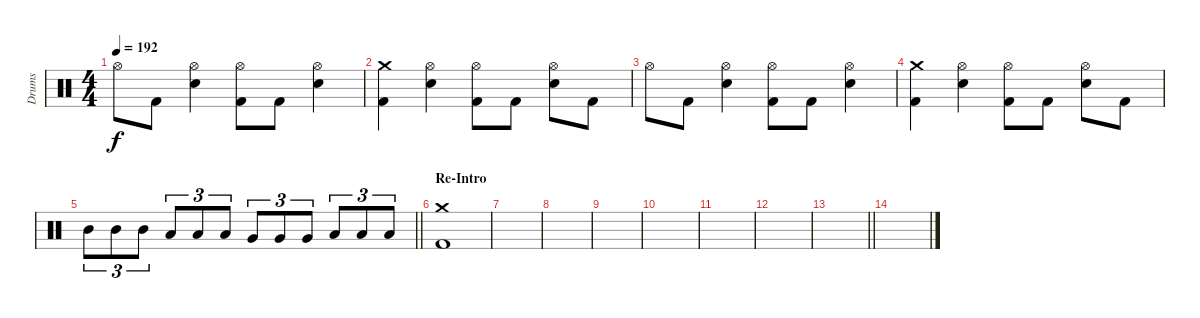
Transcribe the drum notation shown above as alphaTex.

\track ("Drums" "Drums") {instrument percussion}
\staff {score}
\articulation defaults
\ts (4 4)
\tempo 192
\clef neutral
\ks c "Hi-Hat (open)".8{dy f} "Kick (hit) 2".8
("Snare (hit) 2" "Hi-Hat (open)").4 ("Kick (hit) 2" "Hi-Hat (open)").8 "Kick (hit) 2".8 ("Snare (hit) 2" "Hi-Hat (open)").4 |
("Kick (hit) 2" "Crash medium (hit)").4 ("Snare (hit) 2" "Hi-Hat (open)").4 ("Kick (hit) 2" "Hi-Hat (open)").8 "Kick (hit) 2".8 ("Snare (hit) 2" "Hi-Hat (open)").8 "Kick (hit) 2".8 |
"Hi-Hat (open)".8 "Kick (hit) 2".8 ("Snare (hit) 2" "Hi-Hat (open)").4 ("Kick (hit) 2" "Hi-Hat (open)").8 "Kick (hit) 2".8 ("Snare (hit) 2" "Hi-Hat (open)").4 |
("Kick (hit) 2" "Crash medium (hit)").4 ("Snare (hit) 2" "Hi-Hat (open)").4 ("Kick (hit) 2" "Hi-Hat (open)").8 "Kick (hit) 2".8 ("Snare (hit) 2" "Hi-Hat (open)").8 "Kick (hit) 2".8 |
\barLineRight lightlight "Mid Tom (hit)".8{tu (3 2)} "Mid Tom (hit)".8{tu (3 2)} "Mid Tom (hit)".8{tu (3 2)} "Low Tom (hit)".8{tu (3 2)} "Low Tom (hit)".8{tu (3 2)} "Low Tom (hit)".8{tu (3 2)} "Very Low Tom (hit)".8{tu (3 2)} "Very Low Tom (hit)".8{tu (3 2)} "Very Low Tom (hit)".8{tu (3 2)} "Low Floor Tom (hit)".8{tu (3 2)} "Low Floor Tom (hit)".8{tu (3 2)} "Low Floor Tom (hit)".8{tu (3 2)}
|
\section ("" "Re-Intro")
("Kick (hit) 2" "Crash medium (hit)").1 |
|
|
|
|
|
|
\barLineRight lightlight
|
\section ("" "")
